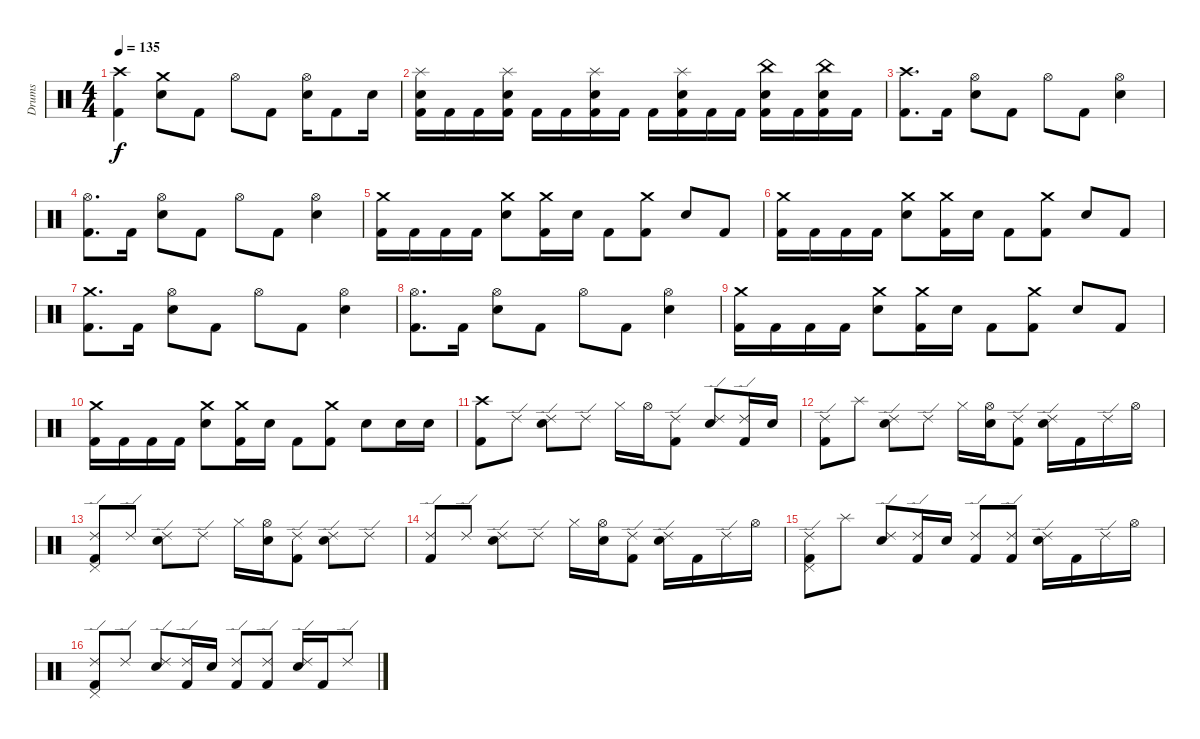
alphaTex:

\track ("Drums" "Drums") {instrument percussion}
\staff {score}
\articulation defaults
\ts (4 4)
\tempo 135
\clef neutral
\ks c
("Crash high (hit)" "Kick (hit) 2").4{dy f} ("Crash medium (hit)" "Electric Snare (hit)").8 "Kick (hit) 2".8 "Hi-Hat (open)".8 "Kick (hit) 2".8 ("Hi-Hat (open)" "Electric Snare (hit)").16 "Kick (hit) 2".8 "Electric Snare (hit)".16 |
("Splash (hit)" "Electric Snare (hit)" "Kick (hit) 2").16 "Kick (hit) 2".16 "Kick (hit) 2".16 ("Splash (hit)" "Electric Snare (hit)" "Kick (hit) 2").16 "Kick (hit) 2".16 "Kick (hit) 2".16 ("Splash (hit)" "Electric Snare (hit)" "Kick (hit) 2").16 "Kick (hit) 2".16 "Kick (hit) 2".16 ("Splash (hit)" "Electric Snare (hit)" "Kick (hit) 2").16 "Kick (hit) 2".16 "Kick (hit) 2".16 ("China (hit)" "Electric Snare (hit)" "Kick (hit) 2").16 "Kick (hit) 2".16 ("China (hit)" "Electric Snare (hit)" "Kick (hit) 2").16 "Kick (hit) 2".16 |
("Crash high (hit)" "Kick (hit) 2").8{d} "Kick (hit) 2".16 ("Hi-Hat (open)" "Electric Snare (hit)").8 "Kick (hit) 2".8 "Hi-Hat (open)".8 "Kick (hit) 2".8 ("Hi-Hat (open)" "Electric Snare (hit)").4 |
("Hi-Hat (open)" "Kick (hit) 2").8{d} "Kick (hit) 2".16 ("Hi-Hat (open)" "Electric Snare (hit)").8 "Kick (hit) 2".8 "Hi-Hat (open)".8 "Kick (hit) 2".8 ("Hi-Hat (open)" "Electric Snare (hit)").4 |
("Crash medium (hit)" "Kick (hit) 2").16 "Kick (hit) 2".16 "Kick (hit) 2".16 "Kick (hit) 2".16 ("Crash medium (hit)" "Electric Snare (hit)").8 ("Crash medium (hit)" "Kick (hit) 2").16 "Electric Snare (hit)".16 "Kick (hit) 2".8 ("Crash medium (hit)" "Kick (hit) 2").8 "Electric Snare (hit)".8 "Kick (hit) 2".8 |
("Crash medium (hit)" "Kick (hit) 2").16 "Kick (hit) 2".16 "Kick (hit) 2".16 "Kick (hit) 2".16 ("Crash medium (hit)" "Electric Snare (hit)").8 ("Crash medium (hit)" "Kick (hit) 2").16 "Electric Snare (hit)".16 "Kick (hit) 2".8 ("Crash medium (hit)" "Kick (hit) 2").8 "Electric Snare (hit)".8 "Kick (hit) 2".8 |
("Crash medium (hit)" "Kick (hit) 2").8{d} "Kick (hit) 2".16 ("Hi-Hat (open)" "Electric Snare (hit)").8 "Kick (hit) 2".8 "Hi-Hat (open)".8 "Kick (hit) 2".8 ("Hi-Hat (open)" "Electric Snare (hit)").4 |
("Hi-Hat (open)" "Kick (hit) 2").8{d} "Kick (hit) 2".16 ("Hi-Hat (open)" "Electric Snare (hit)").8 "Kick (hit) 2".8 "Hi-Hat (open)".8 "Kick (hit) 2".8 ("Hi-Hat (open)" "Electric Snare (hit)").4 |
("Crash medium (hit)" "Kick (hit) 2").16 "Kick (hit) 2".16 "Kick (hit) 2".16 "Kick (hit) 2".16 ("Crash medium (hit)" "Electric Snare (hit)").8 ("Crash medium (hit)" "Kick (hit) 2").16 "Electric Snare (hit)".16 "Kick (hit) 2".8 ("Crash medium (hit)" "Kick (hit) 2").8 "Electric Snare (hit)".8 "Kick (hit) 2".8 |
("Crash medium (hit)" "Kick (hit) 2").16 "Kick (hit) 2".16 "Kick (hit) 2".16 "Kick (hit) 2".16 ("Crash medium (hit)" "Electric Snare (hit)").8 ("Crash medium (hit)" "Kick (hit) 2").16 "Electric Snare (hit)".16 "Kick (hit) 2".8 ("Crash medium (hit)" "Kick (hit) 2").8 "Electric Snare (hit)".8 "Electric Snare (hit)".16 "Electric Snare (hit)".16 |
("Crash high (hit)" "Kick (hit) 2").8 "Ride (edge) 2".8 ("Ride (edge) 2" "Electric Snare (hit)").8 "Ride (edge) 2".8 "Hi-Hat (closed)".16 "Hi-Hat (open)".16 ("Ride (edge) 2" "Kick (hit) 2").8 ("Ride (edge) 2" "Electric Snare (hit)").8 ("Ride (edge) 2" "Kick (hit) 2").16 "Electric Snare (hit)".16 |
("Ride (edge) 2" "Kick (hit) 2").8 "Splash (hit)".8 ("Ride (edge) 2" "Electric Snare (hit)").8 "Ride (edge) 2".8 "Hi-Hat (closed)".16 ("Hi-Hat (open)" "Electric Snare (hit)").16 ("Ride (edge) 2" "Kick (hit) 2").8 ("Ride (edge) 2" "Electric Snare (hit)").16 "Kick (hit) 2".16 "Ride (edge) 2".16 "Hi-Hat (open)".16 |
("Ride (edge) 2" "Pedal Hi-Hat (hit)" "Kick (hit) 2").8 "Ride (edge) 2".8 ("Ride (edge) 2" "Electric Snare (hit)").8 "Ride (edge) 2".8 "Hi-Hat (closed)".16 ("Hi-Hat (open)" "Electric Snare (hit)").16 ("Ride (edge) 2" "Kick (hit) 2").8 ("Ride (edge) 2" "Electric Snare (hit)").8 "Ride (edge) 2".8 |
("Ride (edge) 2" "Kick (hit) 2").8 "Ride (edge) 2".8 ("Ride (edge) 2" "Electric Snare (hit)").8 "Ride (edge) 2".8 "Hi-Hat (closed)".16 ("Hi-Hat (open)" "Electric Snare (hit)").16 ("Ride (edge) 2" "Kick (hit) 2").8 ("Ride (edge) 2" "Electric Snare (hit)").16 "Kick (hit) 2".16 "Ride (edge) 2".16 "Hi-Hat (open)".16 |
("Ride (edge) 2" "Pedal Hi-Hat (hit)" "Kick (hit) 2").8 "Splash (hit)".8 ("Ride (edge) 2" "Electric Snare (hit)").8 ("Ride (edge) 2" "Kick (hit) 2").16 "Electric Snare (hit)".16 ("Ride (edge) 2" "Kick (hit) 2").8 ("Ride (edge) 2" "Kick (hit) 2").8 ("Ride (edge) 2" "Electric Snare (hit)").16 "Kick (hit) 2".16 "Ride (edge) 2".16 "Hi-Hat (open)".16 |
("Ride (edge) 2" "Pedal Hi-Hat (hit)" "Kick (hit) 2").8 "Ride (edge) 2".8 ("Ride (edge) 2" "Electric Snare (hit)").8 ("Ride (edge) 2" "Kick (hit) 2").16 "Electric Snare (hit)".16 ("Ride (edge) 2" "Kick (hit) 2").8 ("Ride (edge) 2" "Kick (hit) 2").8 ("Ride (edge) 2" "Electric Snare (hit)").16 "Kick (hit) 2".16 "Ride (edge) 2".8
